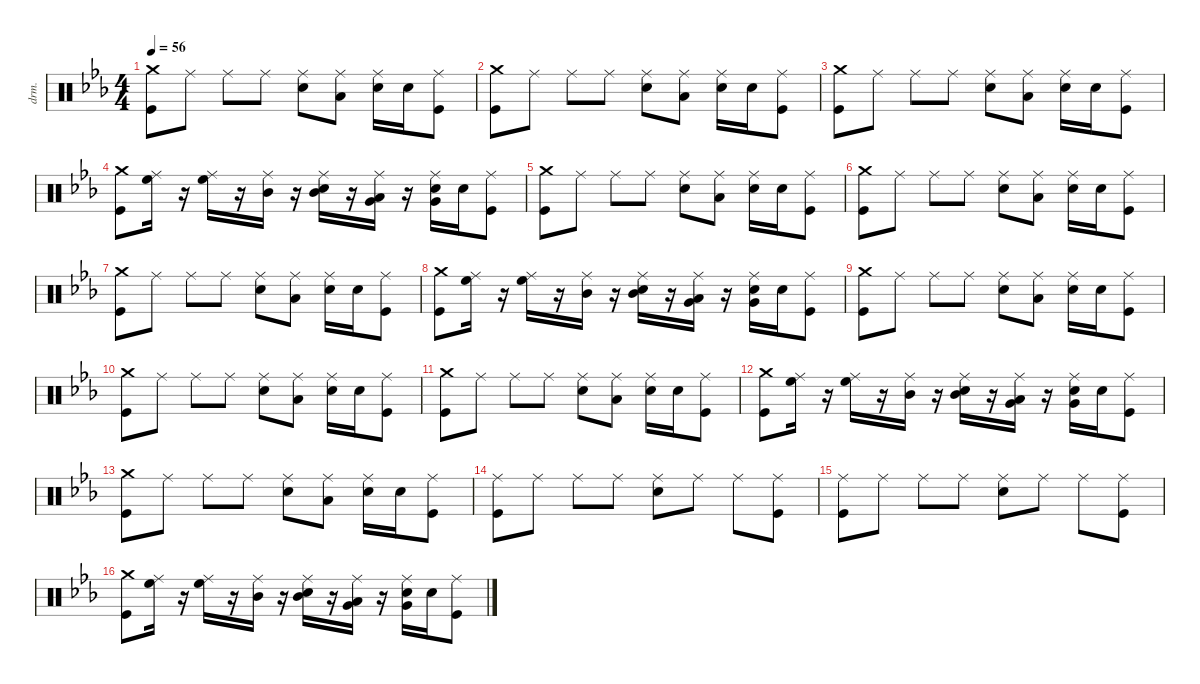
\defaultSystemsLayout 4
\hideDynamics
\bracketExtendMode groupsimilarinstruments
\otherSystemsTrackNameOrientation horizontal
\track ("Percussion" "drm.") {instrument percussion}
\staff {score}
\articulation defaults
\ts (4 4)
\tempo 56
\clef neutral
\ks cminor
("Crash medium (hit)"{acc forcenatural} "Kick (hit)"{acc forcenatural}).8{dy f beam Down} "Ride (middle)"{acc forcenatural}.8{beam Down} "Ride (middle)"{acc forcenatural}.8{beam Down} "Ride (middle)"{acc forcenatural}.8{beam Down} ("Snare (hit) 2"{acc forcenatural} "Ride (middle)"{acc forcenatural}).8{beam Down} ("Low Floor Tom (hit)"{acc forcenatural} "Ride (middle)"{acc forcenatural}).8{beam Down} ("Snare (hit) 2"{acc forcenatural} "Ride (middle)"{acc forcenatural}).16{beam Down} "Snare (hit) 2"{acc forcenatural}.16{beam Down} ("Kick (hit)"{acc forcenatural} "Ride (middle)"{acc forcenatural}).8{beam Down} |
("Crash medium (hit)"{acc forcenatural} "Kick (hit)"{acc forcenatural}).8{beam Down} "Ride (middle)"{acc forcenatural}.8{beam Down} "Ride (middle)"{acc forcenatural}.8{beam Down} "Ride (middle)"{acc forcenatural}.8{beam Down} ("Snare (hit) 2"{acc forcenatural} "Ride (middle)"{acc forcenatural}).8{beam Down} ("Low Floor Tom (hit)"{acc forcenatural} "Ride (middle)"{acc forcenatural}).8{beam Down} ("Snare (hit) 2"{acc forcenatural} "Ride (middle)"{acc forcenatural}).16{beam Down} "Snare (hit) 2"{acc forcenatural}.16{beam Down} ("Kick (hit)"{acc forcenatural} "Ride (middle)"{acc forcenatural}).8{beam Down} |
("Crash medium (hit)"{acc forcenatural} "Kick (hit)"{acc forcenatural}).8{beam Down} "Ride (middle)"{acc forcenatural}.8{beam Down} "Ride (middle)"{acc forcenatural}.8{beam Down} "Ride (middle)"{acc forcenatural}.8{beam Down} ("Snare (hit) 2"{acc forcenatural} "Ride (middle)"{acc forcenatural}).8{beam Down} ("Low Floor Tom (hit)"{acc forcenatural} "Ride (middle)"{acc forcenatural}).8{beam Down} ("Snare (hit) 2"{acc forcenatural} "Ride (middle)"{acc forcenatural}).16{beam Down} "Snare (hit) 2"{acc forcenatural}.16{beam Down} ("Kick (hit)"{acc forcenatural} "Ride (middle)"{acc forcenatural}).8{beam Down} |
("Crash medium (hit)"{acc forcenatural} "Kick (hit)"{acc forcenatural}).8{beam Down} ("High Floor Tom (hit)"{acc forcenatural} "Ride (middle)"{acc forcenatural}).16{beam Down} r.16{beam Down} ("High Floor Tom (hit)"{acc forcenatural} "Ride (middle)"{acc forcenatural}).16{beam Down} r.16{beam Down} ("Mid Tom (hit)"{acc forcenatural} "Ride (middle)"{acc forcenatural}).16{beam Down} r.16{beam Down} ("Mid Tom (hit)"{acc forcenatural} "Snare (hit) 2"{acc forcenatural} "Ride (middle)"{acc forcenatural}).16{beam Down} r.16{beam Down} ("Very Low Tom (hit)"{acc forcenatural} "Low Floor Tom (hit)"{acc forcenatural} "Ride (middle)"{acc forcenatural}).16{beam Down} r.16{beam Down} ("Very Low Tom (hit)"{acc forcenatural} "Snare (hit) 2"{acc forcenatural} "Ride (middle)"{acc forcenatural}).16{beam Down} "Snare (hit) 2"{acc forcenatural}.16{beam Down} ("Kick (hit)"{acc forcenatural} "Ride (middle)"{acc forcenatural}).8{beam Down} |
("Crash medium (hit)"{acc forcenatural} "Kick (hit)"{acc forcenatural}).8{beam Down} "Ride (middle)"{acc forcenatural}.8{beam Down} "Ride (middle)"{acc forcenatural}.8{beam Down} "Ride (middle)"{acc forcenatural}.8{beam Down} ("Snare (hit) 2"{acc forcenatural} "Ride (middle)"{acc forcenatural}).8{beam Down} ("Low Floor Tom (hit)"{acc forcenatural} "Ride (middle)"{acc forcenatural}).8{beam Down} ("Snare (hit) 2"{acc forcenatural} "Ride (middle)"{acc forcenatural}).16{beam Down} "Snare (hit) 2"{acc forcenatural}.16{beam Down} ("Kick (hit)"{acc forcenatural} "Ride (middle)"{acc forcenatural}).8{beam Down} |
("Crash medium (hit)"{acc forcenatural} "Kick (hit)"{acc forcenatural}).8{beam Down} "Ride (middle)"{acc forcenatural}.8{beam Down} "Ride (middle)"{acc forcenatural}.8{beam Down} "Ride (middle)"{acc forcenatural}.8{beam Down} ("Snare (hit) 2"{acc forcenatural} "Ride (middle)"{acc forcenatural}).8{beam Down} ("Low Floor Tom (hit)"{acc forcenatural} "Ride (middle)"{acc forcenatural}).8{beam Down} ("Snare (hit) 2"{acc forcenatural} "Ride (middle)"{acc forcenatural}).16{beam Down} "Snare (hit) 2"{acc forcenatural}.16{beam Down} ("Kick (hit)"{acc forcenatural} "Ride (middle)"{acc forcenatural}).8{beam Down} |
("Crash medium (hit)"{acc forcenatural} "Kick (hit)"{acc forcenatural}).8{beam Down} "Ride (middle)"{acc forcenatural}.8{beam Down} "Ride (middle)"{acc forcenatural}.8{beam Down} "Ride (middle)"{acc forcenatural}.8{beam Down} ("Snare (hit) 2"{acc forcenatural} "Ride (middle)"{acc forcenatural}).8{beam Down} ("Low Floor Tom (hit)"{acc forcenatural} "Ride (middle)"{acc forcenatural}).8{beam Down} ("Snare (hit) 2"{acc forcenatural} "Ride (middle)"{acc forcenatural}).16{beam Down} "Snare (hit) 2"{acc forcenatural}.16{beam Down} ("Kick (hit)"{acc forcenatural} "Ride (middle)"{acc forcenatural}).8{beam Down} |
("Crash medium (hit)"{acc forcenatural} "Kick (hit)"{acc forcenatural}).8{beam Down} ("High Floor Tom (hit)"{acc forcenatural} "Ride (middle)"{acc forcenatural}).16{beam Down} r.16{beam Down} ("High Floor Tom (hit)"{acc forcenatural} "Ride (middle)"{acc forcenatural}).16{beam Down} r.16{beam Down} ("Mid Tom (hit)"{acc forcenatural} "Ride (middle)"{acc forcenatural}).16{beam Down} r.16{beam Down} ("Mid Tom (hit)"{acc forcenatural} "Snare (hit) 2"{acc forcenatural} "Ride (middle)"{acc forcenatural}).16{beam Down} r.16{beam Down} ("Very Low Tom (hit)"{acc forcenatural} "Low Floor Tom (hit)"{acc forcenatural} "Ride (middle)"{acc forcenatural}).16{beam Down} r.16{beam Down} ("Very Low Tom (hit)"{acc forcenatural} "Snare (hit) 2"{acc forcenatural} "Ride (middle)"{acc forcenatural}).16{beam Down} "Snare (hit) 2"{acc forcenatural}.16{beam Down} ("Kick (hit)"{acc forcenatural} "Ride (middle)"{acc forcenatural}).8{beam Down} |
("Crash medium (hit)"{acc forcenatural} "Kick (hit)"{acc forcenatural}).8{beam Down} "Ride (middle)"{acc forcenatural}.8{beam Down} "Ride (middle)"{acc forcenatural}.8{beam Down} "Ride (middle)"{acc forcenatural}.8{beam Down} ("Snare (hit) 2"{acc forcenatural} "Ride (middle)"{acc forcenatural}).8{beam Down} ("Low Floor Tom (hit)"{acc forcenatural} "Ride (middle)"{acc forcenatural}).8{beam Down} ("Snare (hit) 2"{acc forcenatural} "Ride (middle)"{acc forcenatural}).16{beam Down} "Snare (hit) 2"{acc forcenatural}.16{beam Down} ("Kick (hit)"{acc forcenatural} "Ride (middle)"{acc forcenatural}).8{beam Down} |
("Crash medium (hit)"{acc forcenatural} "Kick (hit)"{acc forcenatural}).8{beam Down} "Ride (middle)"{acc forcenatural}.8{beam Down} "Ride (middle)"{acc forcenatural}.8{beam Down} "Ride (middle)"{acc forcenatural}.8{beam Down} ("Snare (hit) 2"{acc forcenatural} "Ride (middle)"{acc forcenatural}).8{beam Down} ("Low Floor Tom (hit)"{acc forcenatural} "Ride (middle)"{acc forcenatural}).8{beam Down} ("Snare (hit) 2"{acc forcenatural} "Ride (middle)"{acc forcenatural}).16{beam Down} "Snare (hit) 2"{acc forcenatural}.16{beam Down} ("Kick (hit)"{acc forcenatural} "Ride (middle)"{acc forcenatural}).8{beam Down} |
("Crash medium (hit)"{acc forcenatural} "Kick (hit)"{acc forcenatural}).8{beam Down} "Ride (middle)"{acc forcenatural}.8{beam Down} "Ride (middle)"{acc forcenatural}.8{beam Down} "Ride (middle)"{acc forcenatural}.8{beam Down} ("Snare (hit) 2"{acc forcenatural} "Ride (middle)"{acc forcenatural}).8{beam Down} ("Low Floor Tom (hit)"{acc forcenatural} "Ride (middle)"{acc forcenatural}).8{beam Down} ("Snare (hit) 2"{acc forcenatural} "Ride (middle)"{acc forcenatural}).16{beam Down} "Snare (hit) 2"{acc forcenatural}.16{beam Down} ("Kick (hit)"{acc forcenatural} "Ride (middle)"{acc forcenatural}).8{beam Down} |
("Crash medium (hit)"{acc forcenatural} "Kick (hit)"{acc forcenatural}).8{beam Down} ("High Floor Tom (hit)"{acc forcenatural} "Ride (middle)"{acc forcenatural}).16{beam Down} r.16{beam Down} ("High Floor Tom (hit)"{acc forcenatural} "Ride (middle)"{acc forcenatural}).16{beam Down} r.16{beam Down} ("Mid Tom (hit)"{acc forcenatural} "Ride (middle)"{acc forcenatural}).16{beam Down} r.16{beam Down} ("Mid Tom (hit)"{acc forcenatural} "Snare (hit) 2"{acc forcenatural} "Ride (middle)"{acc forcenatural}).16{beam Down} r.16{beam Down} ("Very Low Tom (hit)"{acc forcenatural} "Low Floor Tom (hit)"{acc forcenatural} "Ride (middle)"{acc forcenatural}).16{beam Down} r.16{beam Down} ("Very Low Tom (hit)"{acc forcenatural} "Snare (hit) 2"{acc forcenatural} "Ride (middle)"{acc forcenatural}).16{beam Down} "Snare (hit) 2"{acc forcenatural}.16{beam Down} ("Kick (hit)"{acc forcenatural} "Ride (middle)"{acc forcenatural}).8{beam Down} |
("Crash medium (hit)"{acc forcenatural} "Kick (hit)"{acc forcenatural}).8{beam Down} "Ride (middle)"{acc forcenatural}.8{beam Down} "Ride (middle)"{acc forcenatural}.8{beam Down} "Ride (middle)"{acc forcenatural}.8{beam Down} ("Snare (hit) 2"{acc forcenatural} "Ride (middle)"{acc forcenatural}).8{beam Down} ("Low Floor Tom (hit)"{acc forcenatural} "Ride (middle)"{acc forcenatural}).8{beam Down} ("Snare (hit) 2"{acc forcenatural} "Ride (middle)"{acc forcenatural}).16{beam Down} "Snare (hit) 2"{acc forcenatural}.16{beam Down} ("Kick (hit)"{acc forcenatural} "Ride (middle)"{acc forcenatural}).8{beam Down} |
("Ride (middle)"{acc forcenatural} "Kick (hit)"{acc forcenatural}).8{beam Down} "Ride (middle)"{acc forcenatural}.8{beam Down} "Ride (middle)"{acc forcenatural}.8{beam Down} "Ride (middle)"{acc forcenatural}.8{beam Down} ("Snare (hit) 2"{acc forcenatural} "Ride (middle)"{acc forcenatural}).8{beam Down} "Ride (middle)"{acc forcenatural}.8{beam Down} "Ride (middle)"{acc forcenatural}.8{beam Down} ("Kick (hit)"{acc forcenatural} "Ride (middle)"{acc forcenatural}).8{beam Down} |
("Ride (middle)"{acc forcenatural} "Kick (hit)"{acc forcenatural}).8{beam Down} "Ride (middle)"{acc forcenatural}.8{beam Down} "Ride (middle)"{acc forcenatural}.8{beam Down} "Ride (middle)"{acc forcenatural}.8{beam Down} ("Snare (hit) 2"{acc forcenatural} "Ride (middle)"{acc forcenatural}).8{beam Down} "Ride (middle)"{acc forcenatural}.8{beam Down} "Ride (middle)"{acc forcenatural}.8{beam Down} ("Kick (hit)"{acc forcenatural} "Ride (middle)"{acc forcenatural}).8{beam Down} |
("Crash medium (hit)"{acc forcenatural} "Kick (hit)"{acc forcenatural}).8{beam Down} ("High Floor Tom (hit)"{acc forcenatural} "Ride (middle)"{acc forcenatural}).16{beam Down} r.16{beam Down} ("High Floor Tom (hit)"{acc forcenatural} "Ride (middle)"{acc forcenatural}).16{beam Down} r.16{beam Down} ("Mid Tom (hit)"{acc forcenatural} "Ride (middle)"{acc forcenatural}).16{beam Down} r.16{beam Down} ("Mid Tom (hit)"{acc forcenatural} "Snare (hit) 2"{acc forcenatural} "Ride (middle)"{acc forcenatural}).16{beam Down} r.16{beam Down} ("Very Low Tom (hit)"{acc forcenatural} "Low Floor Tom (hit)"{acc forcenatural} "Ride (middle)"{acc forcenatural}).16{beam Down} r.16{beam Down} ("Very Low Tom (hit)"{acc forcenatural} "Snare (hit) 2"{acc forcenatural} "Ride (middle)"{acc forcenatural}).16{beam Down} "Snare (hit) 2"{acc forcenatural}.16{beam Down} ("Kick (hit)"{acc forcenatural} "Ride (middle)"{acc forcenatural}).8{beam Down}
